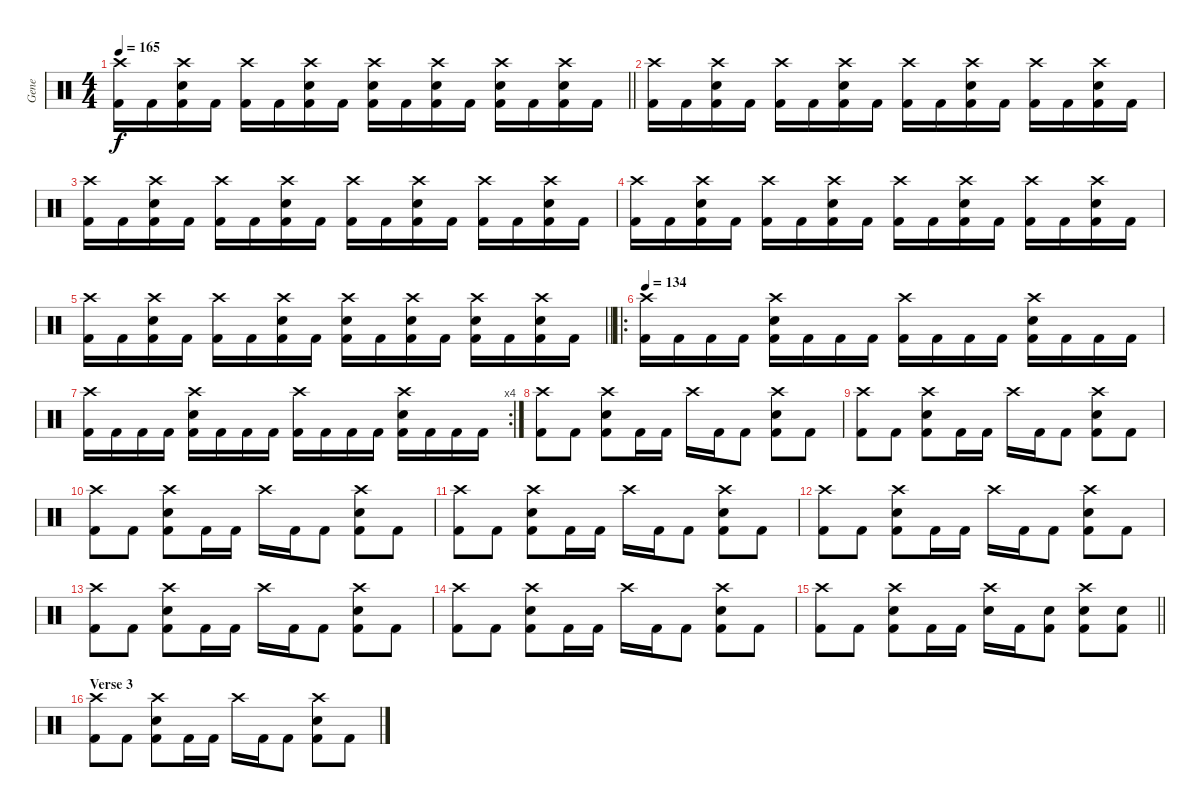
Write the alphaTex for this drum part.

\track ("Gene" "Gene") {instrument percussion}
\staff {score}
\articulation defaults
\ts (4 4)
\tempo 165
\clef neutral
\barLineRight lightlight
\ks c
("Crash high (hit)" "Kick (hit) 2").16{dy f} "Kick (hit) 2".16 ("Crash high (hit)" "Electric Snare (hit)" "Kick (hit) 2").16 "Kick (hit) 2".16 ("Crash high (hit)" "Kick (hit) 2").16 "Kick (hit) 2".16 ("Crash high (hit)" "Electric Snare (hit)" "Kick (hit) 2").16 "Kick (hit) 2".16 ("Crash high (hit)" "Electric Snare (hit)" "Kick (hit) 2").16 "Kick (hit) 2".16 ("Crash high (hit)" "Electric Snare (hit)" "Kick (hit) 2").16 "Kick (hit) 2".16 ("Crash high (hit)" "Electric Snare (hit)" "Kick (hit) 2").16 "Kick (hit) 2".16 ("Crash high (hit)" "Electric Snare (hit)" "Kick (hit) 2").16 "Kick (hit) 2".16 |
("Crash high (hit)" "Kick (hit) 2").16 "Kick (hit) 2".16 ("Crash high (hit)" "Electric Snare (hit)" "Kick (hit) 2").16 "Kick (hit) 2".16 ("Crash high (hit)" "Kick (hit) 2").16 "Kick (hit) 2".16 ("Crash high (hit)" "Electric Snare (hit)" "Kick (hit) 2").16 "Kick (hit) 2".16 ("Crash high (hit)" "Kick (hit) 2").16 "Kick (hit) 2".16 ("Crash high (hit)" "Electric Snare (hit)" "Kick (hit) 2").16 "Kick (hit) 2".16 ("Crash high (hit)" "Kick (hit) 2").16 "Kick (hit) 2".16 ("Crash high (hit)" "Electric Snare (hit)" "Kick (hit) 2").16 "Kick (hit) 2".16 |
("Crash high (hit)" "Kick (hit) 2").16 "Kick (hit) 2".16 ("Crash high (hit)" "Electric Snare (hit)" "Kick (hit) 2").16 "Kick (hit) 2".16 ("Crash high (hit)" "Kick (hit) 2").16 "Kick (hit) 2".16 ("Crash high (hit)" "Electric Snare (hit)" "Kick (hit) 2").16 "Kick (hit) 2".16 ("Crash high (hit)" "Kick (hit) 2").16 "Kick (hit) 2".16 ("Crash high (hit)" "Electric Snare (hit)" "Kick (hit) 2").16 "Kick (hit) 2".16 ("Crash high (hit)" "Kick (hit) 2").16 "Kick (hit) 2".16 ("Crash high (hit)" "Electric Snare (hit)" "Kick (hit) 2").16 "Kick (hit) 2".16 |
("Crash high (hit)" "Kick (hit) 2").16 "Kick (hit) 2".16 ("Crash high (hit)" "Electric Snare (hit)" "Kick (hit) 2").16 "Kick (hit) 2".16 ("Crash high (hit)" "Kick (hit) 2").16 "Kick (hit) 2".16 ("Crash high (hit)" "Electric Snare (hit)" "Kick (hit) 2").16 "Kick (hit) 2".16 ("Crash high (hit)" "Kick (hit) 2").16 "Kick (hit) 2".16 ("Crash high (hit)" "Electric Snare (hit)" "Kick (hit) 2").16 "Kick (hit) 2".16 ("Crash high (hit)" "Kick (hit) 2").16 "Kick (hit) 2".16 ("Crash high (hit)" "Electric Snare (hit)" "Kick (hit) 2").16 "Kick (hit) 2".16 |
\barLineRight lightlight
("Crash high (hit)" "Kick (hit) 2").16 "Kick (hit) 2".16 ("Crash high (hit)" "Electric Snare (hit)" "Kick (hit) 2").16 "Kick (hit) 2".16 ("Crash high (hit)" "Kick (hit) 2").16 "Kick (hit) 2".16 ("Crash high (hit)" "Electric Snare (hit)" "Kick (hit) 2").16 "Kick (hit) 2".16 ("Crash high (hit)" "Electric Snare (hit)" "Kick (hit) 2").16 "Kick (hit) 2".16 ("Crash high (hit)" "Electric Snare (hit)" "Kick (hit) 2").16 "Kick (hit) 2".16 ("Crash high (hit)" "Electric Snare (hit)" "Kick (hit) 2").16 "Kick (hit) 2".16 ("Crash high (hit)" "Electric Snare (hit)" "Kick (hit) 2").16 "Kick (hit) 2".16 |
\ro
\tempo 134
("Crash high (hit)" "Kick (hit) 2").16 "Kick (hit) 2".16 "Kick (hit) 2".16 "Kick (hit) 2".16 ("Crash high (hit)" "Electric Snare (hit)" "Kick (hit) 2").16 "Kick (hit) 2".16 "Kick (hit) 2".16 "Kick (hit) 2".16 ("Crash high (hit)" "Kick (hit) 2").16 "Kick (hit) 2".16 "Kick (hit) 2".16 "Kick (hit) 2".16 ("Crash high (hit)" "Electric Snare (hit)" "Kick (hit) 2").16 "Kick (hit) 2".16 "Kick (hit) 2".16 "Kick (hit) 2".16 |
\rc 4
("Crash high (hit)" "Kick (hit) 2").16 "Kick (hit) 2".16 "Kick (hit) 2".16 "Kick (hit) 2".16 ("Crash high (hit)" "Electric Snare (hit)" "Kick (hit) 2").16 "Kick (hit) 2".16 "Kick (hit) 2".16 "Kick (hit) 2".16 ("Crash high (hit)" "Kick (hit) 2").16 "Kick (hit) 2".16 "Kick (hit) 2".16 "Kick (hit) 2".16 ("Crash high (hit)" "Electric Snare (hit)" "Kick (hit) 2").16 "Kick (hit) 2".16 "Kick (hit) 2".16 "Kick (hit) 2".16 |
("Crash high (hit)" "Kick (hit) 2").8 "Kick (hit) 2".8 ("Electric Snare (hit)" "Crash high (hit)" "Kick (hit) 2").8 "Kick (hit) 2".16 "Kick (hit) 2".16 "Crash high (hit)".16 "Kick (hit) 2".16 "Kick (hit) 2".8 ("Crash high (hit)" "Electric Snare (hit)" "Kick (hit) 2").8 "Kick (hit) 2".8 |
("Crash high (hit)" "Kick (hit) 2").8 "Kick (hit) 2".8 ("Electric Snare (hit)" "Crash high (hit)" "Kick (hit) 2").8 "Kick (hit) 2".16 "Kick (hit) 2".16 "Crash high (hit)".16 "Kick (hit) 2".16 "Kick (hit) 2".8 ("Crash high (hit)" "Electric Snare (hit)" "Kick (hit) 2").8 "Kick (hit) 2".8 |
("Crash high (hit)" "Kick (hit) 2").8 "Kick (hit) 2".8 ("Electric Snare (hit)" "Crash high (hit)" "Kick (hit) 2").8 "Kick (hit) 2".16 "Kick (hit) 2".16 "Crash high (hit)".16 "Kick (hit) 2".16 "Kick (hit) 2".8 ("Crash high (hit)" "Electric Snare (hit)" "Kick (hit) 2").8 "Kick (hit) 2".8 |
("Crash high (hit)" "Kick (hit) 2").8 "Kick (hit) 2".8 ("Electric Snare (hit)" "Crash high (hit)" "Kick (hit) 2").8 "Kick (hit) 2".16 "Kick (hit) 2".16 "Crash high (hit)".16 "Kick (hit) 2".16 "Kick (hit) 2".8 ("Crash high (hit)" "Electric Snare (hit)" "Kick (hit) 2").8 "Kick (hit) 2".8 |
("Crash high (hit)" "Kick (hit) 2").8 "Kick (hit) 2".8 ("Electric Snare (hit)" "Crash high (hit)" "Kick (hit) 2").8 "Kick (hit) 2".16 "Kick (hit) 2".16 "Crash high (hit)".16 "Kick (hit) 2".16 "Kick (hit) 2".8 ("Crash high (hit)" "Electric Snare (hit)" "Kick (hit) 2").8 "Kick (hit) 2".8 |
("Crash high (hit)" "Kick (hit) 2").8 "Kick (hit) 2".8 ("Electric Snare (hit)" "Crash high (hit)" "Kick (hit) 2").8 "Kick (hit) 2".16 "Kick (hit) 2".16 "Crash high (hit)".16 "Kick (hit) 2".16 "Kick (hit) 2".8 ("Crash high (hit)" "Electric Snare (hit)" "Kick (hit) 2").8 "Kick (hit) 2".8 |
("Crash high (hit)" "Kick (hit) 2").8 "Kick (hit) 2".8 ("Electric Snare (hit)" "Crash high (hit)" "Kick (hit) 2").8 "Kick (hit) 2".16 "Kick (hit) 2".16 "Crash high (hit)".16 "Kick (hit) 2".16 "Kick (hit) 2".8 ("Crash high (hit)" "Electric Snare (hit)" "Kick (hit) 2").8 "Kick (hit) 2".8 |
\barLineRight lightlight
("Crash high (hit)" "Kick (hit) 2").8 "Kick (hit) 2".8 ("Electric Snare (hit)" "Crash high (hit)" "Kick (hit) 2").8 "Kick (hit) 2".16 "Kick (hit) 2".16 ("Crash high (hit)" "Electric Snare (hit)").16 "Kick (hit) 2".16 ("Electric Snare (hit)" "Kick (hit) 2").8 ("Crash high (hit)" "Electric Snare (hit)" "Kick (hit) 2").8 ("Electric Snare (hit)" "Kick (hit) 2").8 |
\section ("" "Verse 3")
("Crash high (hit)" "Kick (hit) 2").8 "Kick (hit) 2".8 ("Electric Snare (hit)" "Crash high (hit)" "Kick (hit) 2").8 "Kick (hit) 2".16 "Kick (hit) 2".16 "Crash high (hit)".16 "Kick (hit) 2".16 "Kick (hit) 2".8 ("Crash high (hit)" "Electric Snare (hit)" "Kick (hit) 2").8 "Kick (hit) 2".8
